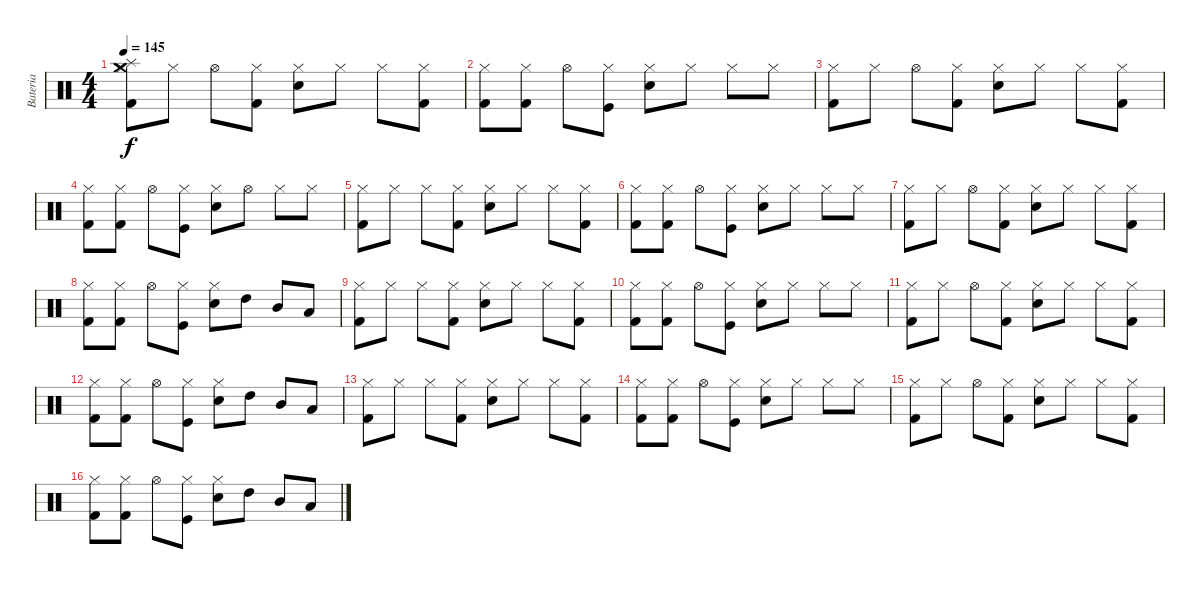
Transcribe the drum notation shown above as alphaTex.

\track ("Bateria" "Bateria") {instrument percussion}
\staff {score}
\articulation defaults
\ts (4 4)
\tempo 145
\clef neutral
\ks c
("Kick (hit) 2" "Hi-Hat (closed)" "Crash medium (hit)" "Splash (hit)").8{dy f} "Hi-Hat (closed)".8 "Hi-Hat (open)".8 ("Kick (hit) 2" "Hi-Hat (closed)").8 ("Electric Snare (hit)" "Hi-Hat (closed)").8 "Hi-Hat (closed)".8 "Hi-Hat (closed)".8 ("Kick (hit) 2" "Hi-Hat (closed)").8 |
("Kick (hit) 2" "Hi-Hat (closed)").8 ("Kick (hit) 2" "Hi-Hat (closed)").8 "Hi-Hat (open)".8 ("Kick (hit)" "Hi-Hat (closed)").8 ("Electric Snare (hit)" "Hi-Hat (closed)").8 "Hi-Hat (closed)".8 "Hi-Hat (closed)".8 "Hi-Hat (closed)".8 |
("Kick (hit) 2" "Hi-Hat (closed)").8 "Hi-Hat (closed)".8 "Hi-Hat (open)".8 ("Kick (hit) 2" "Hi-Hat (closed)").8 ("Electric Snare (hit)" "Hi-Hat (closed)").8 "Hi-Hat (closed)".8 "Hi-Hat (closed)".8 ("Kick (hit) 2" "Hi-Hat (closed)").8 |
("Kick (hit) 2" "Hi-Hat (closed)").8 ("Kick (hit) 2" "Hi-Hat (closed)").8 "Hi-Hat (open)".8 ("Kick (hit)" "Hi-Hat (closed)").8 ("Electric Snare (hit)" "Hi-Hat (closed)").8 "Hi-Hat (open)".8 "Hi-Hat (closed)".8 "Hi-Hat (closed)".8 |
("Kick (hit) 2" "Hi-Hat (closed)").8 "Hi-Hat (closed)".8 "Hi-Hat (closed)".8 ("Kick (hit) 2" "Hi-Hat (closed)").8 ("Electric Snare (hit)" "Hi-Hat (closed)").8 "Hi-Hat (closed)".8 "Hi-Hat (closed)".8 ("Kick (hit) 2" "Hi-Hat (closed)").8 |
("Kick (hit) 2" "Hi-Hat (closed)").8 ("Kick (hit) 2" "Hi-Hat (closed)").8 "Hi-Hat (open)".8 ("Kick (hit)" "Hi-Hat (closed)").8 ("Electric Snare (hit)" "Hi-Hat (closed)").8 "Hi-Hat (closed)".8 "Hi-Hat (closed)".8 "Hi-Hat (closed)".8 |
("Kick (hit) 2" "Hi-Hat (closed)").8 "Hi-Hat (closed)".8 "Hi-Hat (open)".8 ("Kick (hit) 2" "Hi-Hat (closed)").8 ("Electric Snare (hit)" "Hi-Hat (closed)").8 "Hi-Hat (closed)".8 "Hi-Hat (closed)".8 ("Kick (hit) 2" "Hi-Hat (closed)").8 |
("Kick (hit) 2" "Hi-Hat (closed)").8 ("Kick (hit) 2" "Hi-Hat (closed)").8 "Hi-Hat (open)".8 ("Kick (hit)" "Hi-Hat (closed)").8 ("Electric Snare (hit)" "Hi-Hat (closed)").8 "High Tom (hit)".8 "Mid Tom (hit)".8 "Low Tom (hit)".8 |
("Kick (hit) 2" "Hi-Hat (closed)").8 "Hi-Hat (closed)".8 "Hi-Hat (closed)".8 ("Kick (hit) 2" "Hi-Hat (closed)").8 ("Electric Snare (hit)" "Hi-Hat (closed)").8 "Hi-Hat (closed)".8 "Hi-Hat (closed)".8 ("Kick (hit) 2" "Hi-Hat (closed)").8 |
("Kick (hit) 2" "Hi-Hat (closed)").8 ("Kick (hit) 2" "Hi-Hat (closed)").8 "Hi-Hat (open)".8 ("Kick (hit)" "Hi-Hat (closed)").8 ("Electric Snare (hit)" "Hi-Hat (closed)").8 "Hi-Hat (closed)".8 "Hi-Hat (closed)".8 "Hi-Hat (closed)".8 |
("Kick (hit) 2" "Hi-Hat (closed)").8 "Hi-Hat (closed)".8 "Hi-Hat (open)".8 ("Kick (hit) 2" "Hi-Hat (closed)").8 ("Electric Snare (hit)" "Hi-Hat (closed)").8 "Hi-Hat (closed)".8 "Hi-Hat (closed)".8 ("Kick (hit) 2" "Hi-Hat (closed)").8 |
("Kick (hit) 2" "Hi-Hat (closed)").8 ("Kick (hit) 2" "Hi-Hat (closed)").8 "Hi-Hat (open)".8 ("Kick (hit)" "Hi-Hat (closed)").8 ("Electric Snare (hit)" "Hi-Hat (closed)").8 "High Tom (hit)".8 "Mid Tom (hit)".8 "Low Tom (hit)".8 |
("Kick (hit) 2" "Hi-Hat (closed)").8 "Hi-Hat (closed)".8 "Hi-Hat (closed)".8 ("Kick (hit) 2" "Hi-Hat (closed)").8 ("Electric Snare (hit)" "Hi-Hat (closed)").8 "Hi-Hat (closed)".8 "Hi-Hat (closed)".8 ("Kick (hit) 2" "Hi-Hat (closed)").8 |
("Kick (hit) 2" "Hi-Hat (closed)").8 ("Kick (hit) 2" "Hi-Hat (closed)").8 "Hi-Hat (open)".8 ("Kick (hit)" "Hi-Hat (closed)").8 ("Electric Snare (hit)" "Hi-Hat (closed)").8 "Hi-Hat (closed)".8 "Hi-Hat (closed)".8 "Hi-Hat (closed)".8 |
("Kick (hit) 2" "Hi-Hat (closed)").8 "Hi-Hat (closed)".8 "Hi-Hat (open)".8 ("Kick (hit) 2" "Hi-Hat (closed)").8 ("Electric Snare (hit)" "Hi-Hat (closed)").8 "Hi-Hat (closed)".8 "Hi-Hat (closed)".8 ("Kick (hit) 2" "Hi-Hat (closed)").8 |
("Kick (hit) 2" "Hi-Hat (closed)").8 ("Kick (hit) 2" "Hi-Hat (closed)").8 "Hi-Hat (open)".8 ("Kick (hit)" "Hi-Hat (closed)").8 ("Electric Snare (hit)" "Hi-Hat (closed)").8 "High Tom (hit)".8 "Mid Tom (hit)".8 "Low Tom (hit)".8
